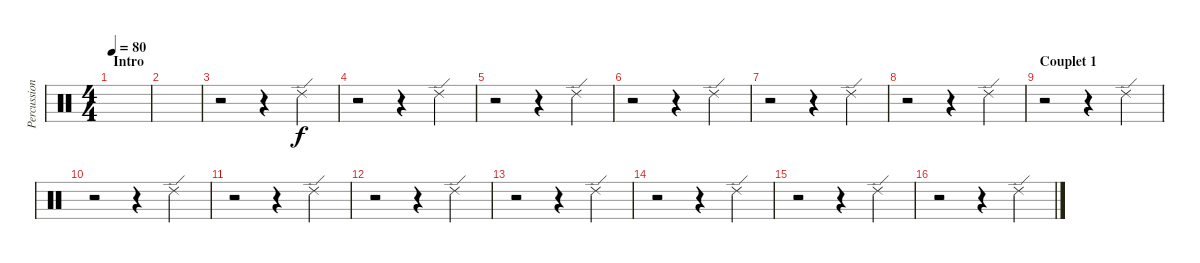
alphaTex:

\track ("Percussions" "Percussion") {instrument percussion}
\staff {score}
\articulation defaults
\ts (4 4)
\section ("" "Intro")
\tempo 80
\clef neutral
\ks c
|
|
r.2 r.4 "Ride (edge) 2".4 |
r.2 r.4 "Ride (edge) 2".4 |
r.2 r.4 "Ride (edge) 2".4 |
r.2 r.4 "Ride (edge) 2".4 |
r.2 r.4 "Ride (edge) 2".4 |
r.2 r.4 "Ride (edge) 2".4 |
\section ("" "Couplet 1")
r.2 r.4 "Ride (edge) 2".4 |
r.2 r.4 "Ride (edge) 2".4 |
r.2 r.4 "Ride (edge) 2".4 |
r.2 r.4 "Ride (edge) 2".4 |
r.2 r.4 "Ride (edge) 2".4 |
r.2 r.4 "Ride (edge) 2".4 |
r.2 r.4 "Ride (edge) 2".4 |
r.2 r.4 "Ride (edge) 2".4
